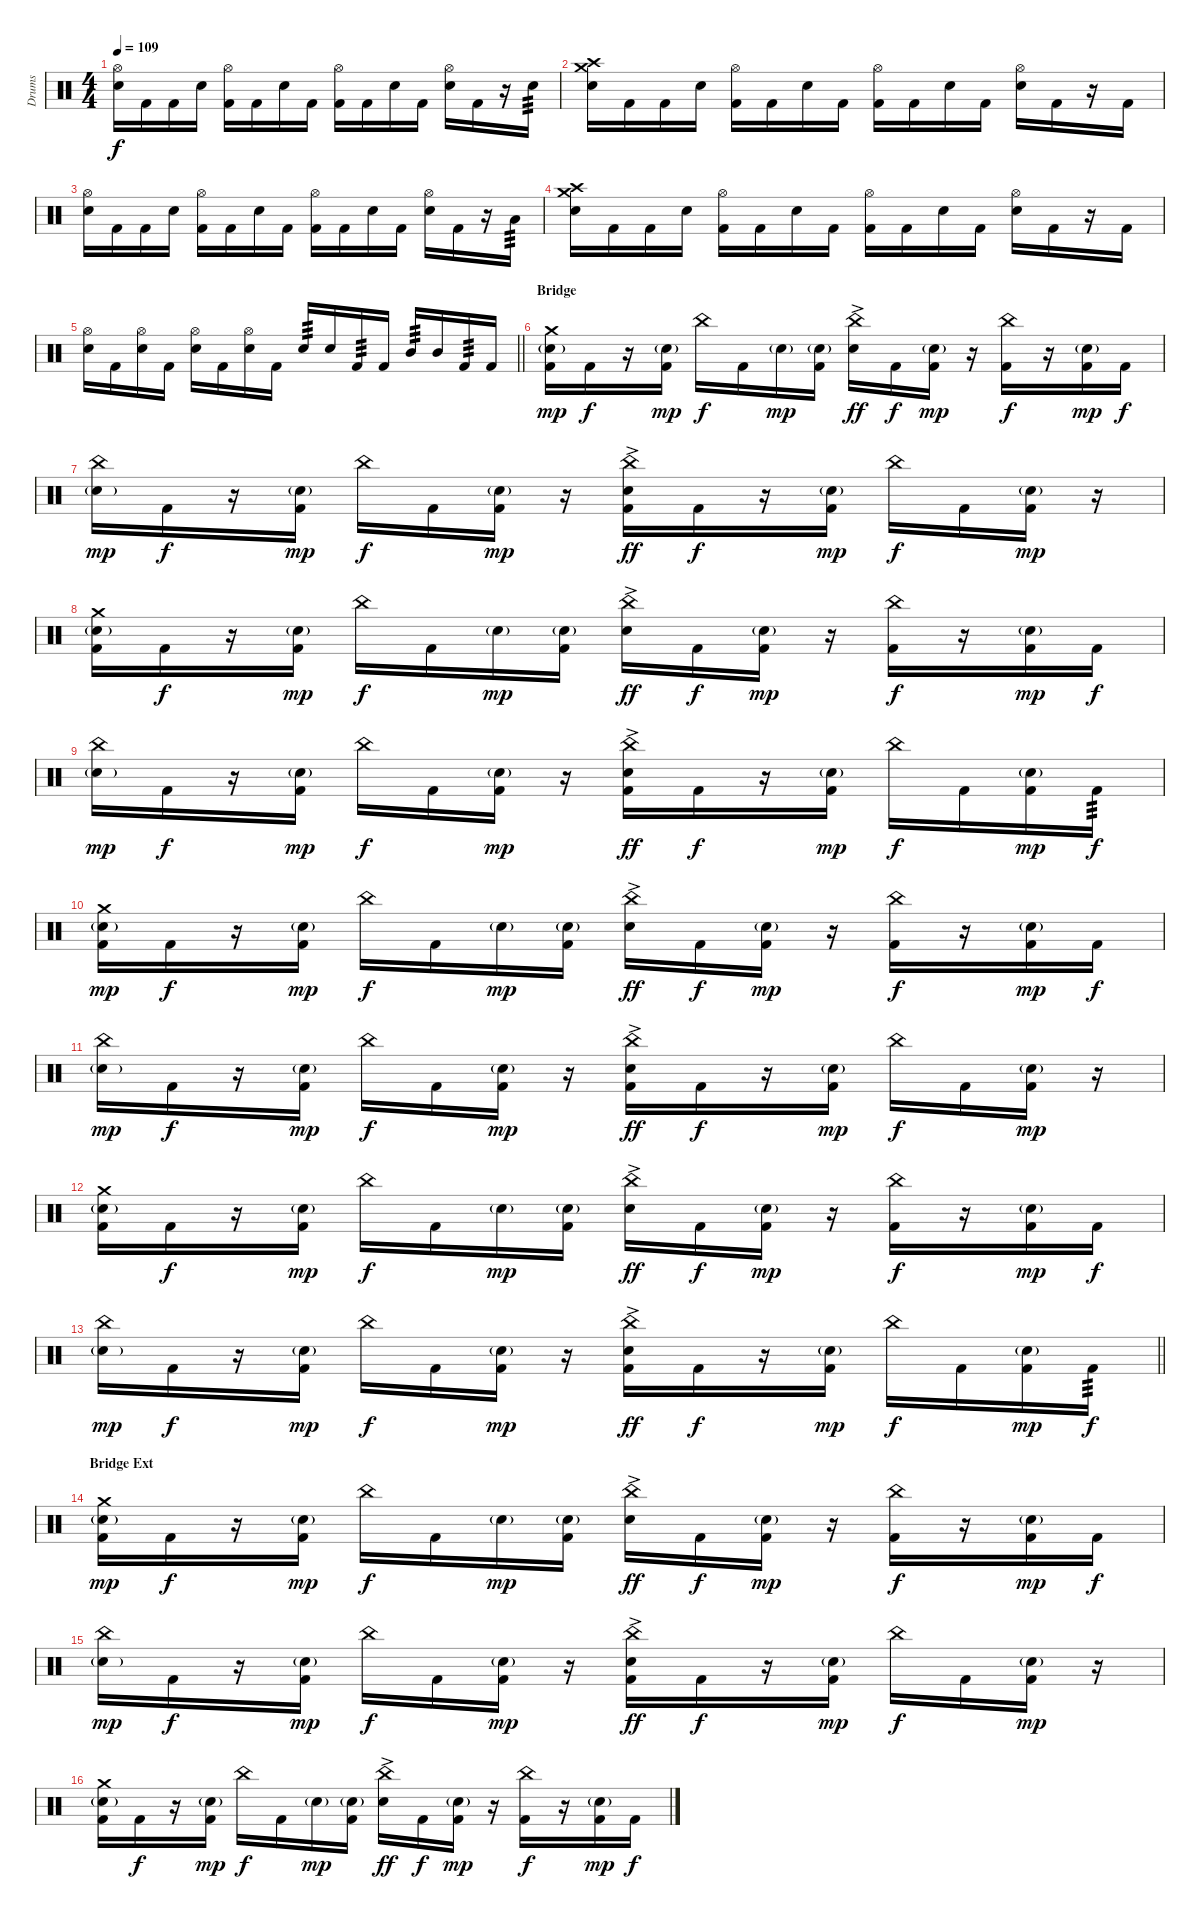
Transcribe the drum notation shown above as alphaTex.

\track ("Drums" "Drums") {instrument percussion}
\staff {score}
\articulation defaults
\ts (4 4)
\tempo 109
\clef neutral
\ks c
("Hi-Hat (open)" "Snare (hit) 2").16{dy f} "Kick (hit) 2".16 "Kick (hit) 2".16 "Snare (hit) 2".16 ("Hi-Hat (open)" "Kick (hit) 2").16 "Kick (hit) 2".16 "Snare (hit) 2".16 "Kick (hit) 2".16 ("Hi-Hat (open)" "Kick (hit) 2").16 "Kick (hit) 2".16 "Snare (hit) 2".16 "Kick (hit) 2".16 ("Hi-Hat (open)" "Snare (hit) 2").16 "Kick (hit) 2".16 r.16 "Snare (hit) 2".16{tp 3} |
("Crash medium (hit)" "Crash high (hit)" "Snare (hit) 2").16 "Kick (hit) 2".16 "Kick (hit) 2".16 "Snare (hit) 2".16 ("Hi-Hat (open)" "Kick (hit) 2").16 "Kick (hit) 2".16 "Snare (hit) 2".16 "Kick (hit) 2".16 ("Hi-Hat (open)" "Kick (hit) 2").16 "Kick (hit) 2".16 "Snare (hit) 2".16 "Kick (hit) 2".16 ("Hi-Hat (open)" "Snare (hit) 2").16 "Kick (hit) 2".16 r.16 "Kick (hit) 2".16 |
("Hi-Hat (open)" "Snare (hit) 2").16 "Kick (hit) 2".16 "Kick (hit) 2".16 "Snare (hit) 2".16 ("Hi-Hat (open)" "Kick (hit) 2").16 "Kick (hit) 2".16 "Snare (hit) 2".16 "Kick (hit) 2".16 ("Hi-Hat (open)" "Kick (hit) 2").16 "Kick (hit) 2".16 "Snare (hit) 2".16 "Kick (hit) 2".16 ("Hi-Hat (open)" "Snare (hit) 2").16 "Kick (hit) 2".16 r.16 "Low Tom (hit)".16{tp 3} |
("Crash medium (hit)" "Crash high (hit)" "Snare (hit) 2").16 "Kick (hit) 2".16 "Kick (hit) 2".16 "Snare (hit) 2".16 ("Hi-Hat (open)" "Kick (hit) 2").16 "Kick (hit) 2".16 "Snare (hit) 2".16 "Kick (hit) 2".16 ("Hi-Hat (open)" "Kick (hit) 2").16 "Kick (hit) 2".16 "Snare (hit) 2".16 "Kick (hit) 2".16 ("Hi-Hat (open)" "Snare (hit) 2").16 "Kick (hit) 2".16 r.16 "Kick (hit) 2".16 |
\barLineRight lightlight
("Hi-Hat (open)" "Snare (hit) 2").16 "Kick (hit) 2".16 ("Hi-Hat (open)" "Snare (hit) 2").16 "Kick (hit) 2".16 ("Hi-Hat (open)" "Snare (hit) 2").16 "Kick (hit) 2".16 ("Hi-Hat (open)" "Snare (hit) 2").16 "Kick (hit) 2".16 "Snare (hit) 2".16{tp 3} "Snare (hit) 2".16 "Kick (hit) 2".16{tp 3} "Kick (hit) 2".16 "Mid Tom (hit)".16{tp 3} "Mid Tom (hit)".16 "Kick (hit) 2".16{tp 3} "Kick (hit) 2".16 |
\section ("" "Bridge")
("Crash medium (hit)" "Snare (hit) 2"{g} "Kick (hit) 2").16{dy mp} "Kick (hit) 2".16{dy f} r.16 ("Snare (hit) 2"{g} "Kick (hit) 2").16{dy mp} "China (hit)".16{dy f} "Kick (hit) 2".16 "Snare (hit) 2"{g}.16{dy mp} ("Snare (hit) 2"{g} "Kick (hit) 2").16 ("China (hit)" "Snare (hit) 2"{ac}).16{dy ff} "Kick (hit) 2".16{dy f} ("Snare (hit) 2"{g} "Kick (hit) 2").16{dy mp} r.16 ("China (hit)" "Kick (hit) 2").16{dy f} r.16 ("Snare (hit) 2"{g} "Kick (hit) 2").16{dy mp} "Kick (hit) 2".16{dy f} |
("China (hit)" "Snare (hit) 2"{g}).16{dy mp} "Kick (hit) 2".16{dy f} r.16 ("Snare (hit) 2"{g} "Kick (hit) 2").16{dy mp} "China (hit)".16{dy f} "Kick (hit) 2".16 ("Snare (hit) 2"{g} "Kick (hit) 2").16{dy mp} r.16 ("China (hit)" "Snare (hit) 2"{ac} "Kick (hit) 2").16{dy ff} "Kick (hit) 2".16{dy f} r.16 ("Snare (hit) 2"{g} "Kick (hit) 2").16{dy mp} "China (hit)".16{dy f} "Kick (hit) 2".16 ("Snare (hit) 2"{g} "Kick (hit) 2").16{dy mp} r.16 |
("Crash medium (hit)" "Snare (hit) 2"{g} "Kick (hit) 2").16 "Kick (hit) 2".16{dy f} r.16 ("Snare (hit) 2"{g} "Kick (hit) 2").16{dy mp} "China (hit)".16{dy f} "Kick (hit) 2".16 "Snare (hit) 2"{g}.16{dy mp} ("Snare (hit) 2"{g} "Kick (hit) 2").16 ("China (hit)" "Snare (hit) 2"{ac}).16{dy ff} "Kick (hit) 2".16{dy f} ("Snare (hit) 2"{g} "Kick (hit) 2").16{dy mp} r.16 ("China (hit)" "Kick (hit) 2").16{dy f} r.16 ("Snare (hit) 2"{g} "Kick (hit) 2").16{dy mp} "Kick (hit) 2".16{dy f} |
("China (hit)" "Snare (hit) 2"{g}).16{dy mp} "Kick (hit) 2".16{dy f} r.16 ("Snare (hit) 2"{g} "Kick (hit) 2").16{dy mp} "China (hit)".16{dy f} "Kick (hit) 2".16 ("Snare (hit) 2"{g} "Kick (hit) 2").16{dy mp} r.16 ("China (hit)" "Snare (hit) 2"{ac} "Kick (hit) 2").16{dy ff} "Kick (hit) 2".16{dy f} r.16 ("Snare (hit) 2"{g} "Kick (hit) 2").16{dy mp} "China (hit)".16{dy f} "Kick (hit) 2".16 ("Snare (hit) 2"{g} "Kick (hit) 2").16{dy mp} "Kick (hit) 2".16{tp 3 dy f} |
("Crash medium (hit)" "Snare (hit) 2"{g} "Kick (hit) 2").16{dy mp} "Kick (hit) 2".16{dy f} r.16 ("Snare (hit) 2"{g} "Kick (hit) 2").16{dy mp} "China (hit)".16{dy f} "Kick (hit) 2".16 "Snare (hit) 2"{g}.16{dy mp} ("Snare (hit) 2"{g} "Kick (hit) 2").16 ("China (hit)" "Snare (hit) 2"{ac}).16{dy ff} "Kick (hit) 2".16{dy f} ("Snare (hit) 2"{g} "Kick (hit) 2").16{dy mp} r.16 ("China (hit)" "Kick (hit) 2").16{dy f} r.16 ("Snare (hit) 2"{g} "Kick (hit) 2").16{dy mp} "Kick (hit) 2".16{dy f} |
("China (hit)" "Snare (hit) 2"{g}).16{dy mp} "Kick (hit) 2".16{dy f} r.16 ("Snare (hit) 2"{g} "Kick (hit) 2").16{dy mp} "China (hit)".16{dy f} "Kick (hit) 2".16 ("Snare (hit) 2"{g} "Kick (hit) 2").16{dy mp} r.16 ("China (hit)" "Snare (hit) 2"{ac} "Kick (hit) 2").16{dy ff} "Kick (hit) 2".16{dy f} r.16 ("Snare (hit) 2"{g} "Kick (hit) 2").16{dy mp} "China (hit)".16{dy f} "Kick (hit) 2".16 ("Snare (hit) 2"{g} "Kick (hit) 2").16{dy mp} r.16 |
("Crash medium (hit)" "Snare (hit) 2"{g} "Kick (hit) 2").16 "Kick (hit) 2".16{dy f} r.16 ("Snare (hit) 2"{g} "Kick (hit) 2").16{dy mp} "China (hit)".16{dy f} "Kick (hit) 2".16 "Snare (hit) 2"{g}.16{dy mp} ("Snare (hit) 2"{g} "Kick (hit) 2").16 ("China (hit)" "Snare (hit) 2"{ac}).16{dy ff} "Kick (hit) 2".16{dy f} ("Snare (hit) 2"{g} "Kick (hit) 2").16{dy mp} r.16 ("China (hit)" "Kick (hit) 2").16{dy f} r.16 ("Snare (hit) 2"{g} "Kick (hit) 2").16{dy mp} "Kick (hit) 2".16{dy f} |
\barLineRight lightlight
("China (hit)" "Snare (hit) 2"{g}).16{dy mp} "Kick (hit) 2".16{dy f} r.16 ("Snare (hit) 2"{g} "Kick (hit) 2").16{dy mp} "China (hit)".16{dy f} "Kick (hit) 2".16 ("Snare (hit) 2"{g} "Kick (hit) 2").16{dy mp} r.16 ("China (hit)" "Snare (hit) 2"{ac} "Kick (hit) 2").16{dy ff} "Kick (hit) 2".16{dy f} r.16 ("Snare (hit) 2"{g} "Kick (hit) 2").16{dy mp} "China (hit)".16{dy f} "Kick (hit) 2".16 ("Snare (hit) 2"{g} "Kick (hit) 2").16{dy mp} "Kick (hit) 2".16{tp 3 dy f} |
\section ("" "Bridge Ext")
("Crash medium (hit)" "Snare (hit) 2"{g} "Kick (hit) 2").16{dy mp} "Kick (hit) 2".16{dy f} r.16 ("Snare (hit) 2"{g} "Kick (hit) 2").16{dy mp} "China (hit)".16{dy f} "Kick (hit) 2".16 "Snare (hit) 2"{g}.16{dy mp} ("Snare (hit) 2"{g} "Kick (hit) 2").16 ("China (hit)" "Snare (hit) 2"{ac}).16{dy ff} "Kick (hit) 2".16{dy f} ("Snare (hit) 2"{g} "Kick (hit) 2").16{dy mp} r.16 ("China (hit)" "Kick (hit) 2").16{dy f} r.16 ("Snare (hit) 2"{g} "Kick (hit) 2").16{dy mp} "Kick (hit) 2".16{dy f} |
("China (hit)" "Snare (hit) 2"{g}).16{dy mp} "Kick (hit) 2".16{dy f} r.16 ("Snare (hit) 2"{g} "Kick (hit) 2").16{dy mp} "China (hit)".16{dy f} "Kick (hit) 2".16 ("Snare (hit) 2"{g} "Kick (hit) 2").16{dy mp} r.16 ("China (hit)" "Snare (hit) 2"{ac} "Kick (hit) 2").16{dy ff} "Kick (hit) 2".16{dy f} r.16 ("Snare (hit) 2"{g} "Kick (hit) 2").16{dy mp} "China (hit)".16{dy f} "Kick (hit) 2".16 ("Snare (hit) 2"{g} "Kick (hit) 2").16{dy mp} r.16 |
("Crash medium (hit)" "Snare (hit) 2"{g} "Kick (hit) 2").16 "Kick (hit) 2".16{dy f} r.16 ("Snare (hit) 2"{g} "Kick (hit) 2").16{dy mp} "China (hit)".16{dy f} "Kick (hit) 2".16 "Snare (hit) 2"{g}.16{dy mp} ("Snare (hit) 2"{g} "Kick (hit) 2").16 ("China (hit)" "Snare (hit) 2"{ac}).16{dy ff} "Kick (hit) 2".16{dy f} ("Snare (hit) 2"{g} "Kick (hit) 2").16{dy mp} r.16 ("China (hit)" "Kick (hit) 2").16{dy f} r.16 ("Snare (hit) 2"{g} "Kick (hit) 2").16{dy mp} "Kick (hit) 2".16{dy f}
